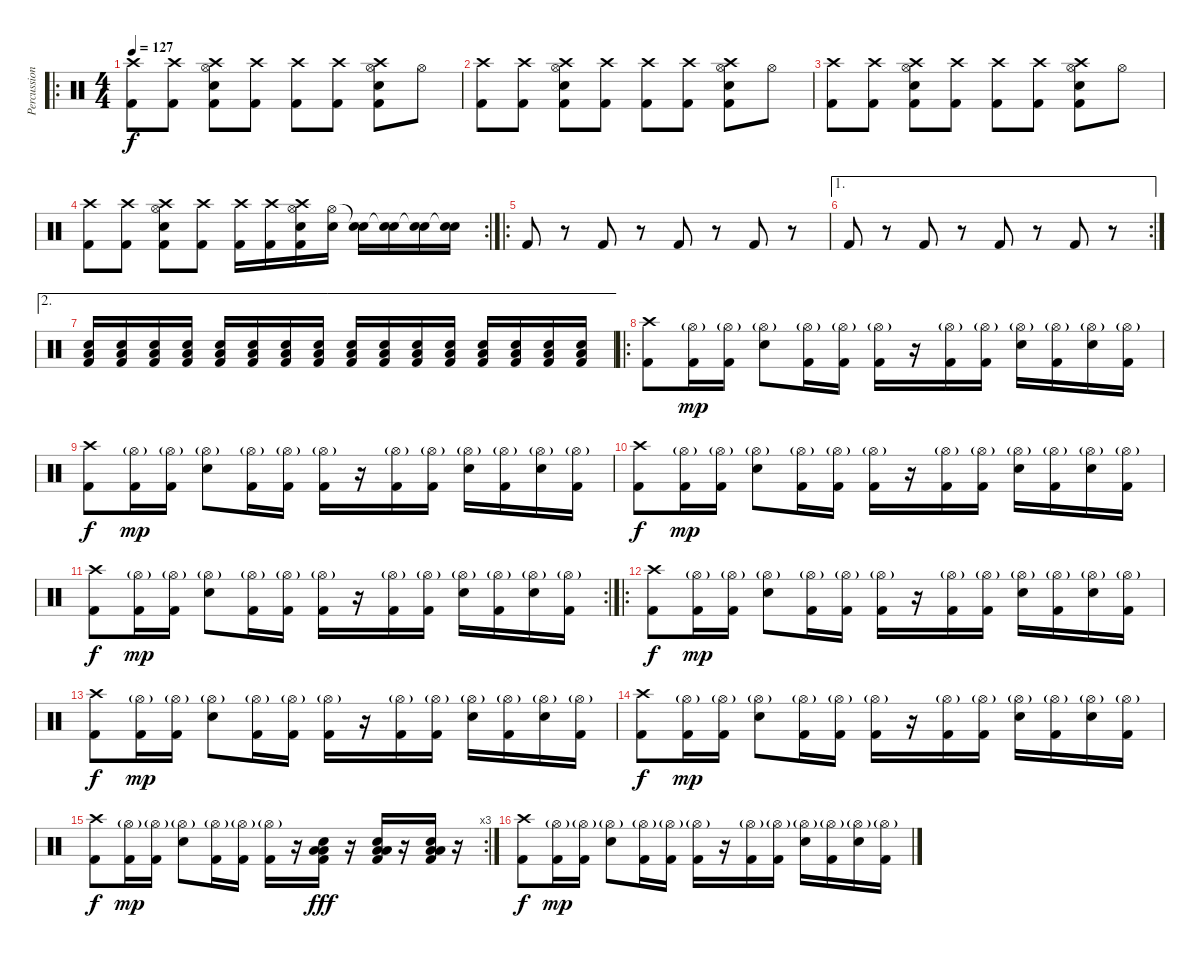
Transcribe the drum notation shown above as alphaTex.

\track ("Percussions" "Percussion") {instrument percussion}
\staff {score}
\articulation defaults
\ro
\ts (4 4)
\tempo 127
\clef neutral
\ks c
("Crash high (hit)" "Kick (hit) 2").8{dy f} ("Crash high (hit)" "Kick (hit) 2").8 ("Crash high (hit)" "Hi-Hat (open)" "Kick (hit) 2" "Electric Snare (hit)").8 ("Crash high (hit)" "Kick (hit) 2").8 ("Crash high (hit)" "Kick (hit) 2").8 ("Crash high (hit)" "Kick (hit) 2").8 ("Crash high (hit)" "Hi-Hat (open)" "Kick (hit) 2" "Electric Snare (hit)").8 "Hi-Hat (open)".8 |
("Crash high (hit)" "Kick (hit) 2").8 ("Crash high (hit)" "Kick (hit) 2").8 ("Crash high (hit)" "Hi-Hat (open)" "Kick (hit) 2" "Electric Snare (hit)").8 ("Crash high (hit)" "Kick (hit) 2").8 ("Crash high (hit)" "Kick (hit) 2").8 ("Crash high (hit)" "Kick (hit) 2").8 ("Crash high (hit)" "Hi-Hat (open)" "Kick (hit) 2" "Electric Snare (hit)").8 "Hi-Hat (open)".8 |
("Crash high (hit)" "Kick (hit) 2").8 ("Crash high (hit)" "Kick (hit) 2").8 ("Crash high (hit)" "Hi-Hat (open)" "Kick (hit) 2" "Electric Snare (hit)").8 ("Crash high (hit)" "Kick (hit) 2").8 ("Crash high (hit)" "Kick (hit) 2").8 ("Crash high (hit)" "Kick (hit) 2").8 ("Crash high (hit)" "Hi-Hat (open)" "Kick (hit) 2" "Electric Snare (hit)").8 "Hi-Hat (open)".8 |
\rc 2
("Crash high (hit)" "Kick (hit) 2").8 ("Crash high (hit)" "Kick (hit) 2").8 ("Crash high (hit)" "Hi-Hat (open)" "Kick (hit) 2" "Electric Snare (hit)").8 ("Crash high (hit)" "Kick (hit) 2").8 ("Crash high (hit)" "Kick (hit) 2").16 ("Crash high (hit)" "Kick (hit) 2").16 ("Crash high (hit)" "Hi-Hat (open)" "Kick (hit) 2" "Electric Snare (hit)").16 ("Hi-Hat (open)" "Electric Snare (hit)").16 ("Snare (hit)"{t} "Electric Snare (hit)").16 ("Snare (hit)"{t} "Electric Snare (hit)").16 ("Snare (hit)"{t} "Electric Snare (hit)").16 ("Snare (hit)"{t} "Electric Snare (hit)").16 |
\ro "Kick (hit) 2".8
r.8 "Kick (hit) 2".8 r.8 "Kick (hit) 2".8 r.8 "Kick (hit) 2".8 r.8 |
\ae 1
\rc 2 "Kick (hit) 2".8
r.8 "Kick (hit) 2".8 r.8 "Kick (hit) 2".8 r.8 "Kick (hit) 2".8 r.8 |
\ae 2
("Kick (hit) 2" "Low Floor Tom (hit)" "Electric Snare (hit)").16 ("Kick (hit) 2" "Low Floor Tom (hit)" "Electric Snare (hit)").16 ("Kick (hit) 2" "Low Floor Tom (hit)" "Electric Snare (hit)").16 ("Kick (hit) 2" "Low Floor Tom (hit)" "Electric Snare (hit)").16 ("Kick (hit) 2" "Low Floor Tom (hit)" "Electric Snare (hit)").16 ("Kick (hit) 2" "Low Floor Tom (hit)" "Electric Snare (hit)").16 ("Kick (hit) 2" "Low Floor Tom (hit)" "Electric Snare (hit)").16 ("Kick (hit) 2" "Low Floor Tom (hit)" "Electric Snare (hit)").16 ("Kick (hit) 2" "Low Floor Tom (hit)" "Electric Snare (hit)").16 ("Kick (hit) 2" "Low Floor Tom (hit)" "Electric Snare (hit)").16 ("Kick (hit) 2" "Low Floor Tom (hit)" "Electric Snare (hit)").16 ("Kick (hit) 2" "Low Floor Tom (hit)" "Electric Snare (hit)").16 ("Kick (hit) 2" "Low Floor Tom (hit)" "Electric Snare (hit)").16 ("Kick (hit) 2" "Low Floor Tom (hit)" "Electric Snare (hit)").16 ("Kick (hit) 2" "Low Floor Tom (hit)" "Electric Snare (hit)").16 ("Kick (hit) 2" "Low Floor Tom (hit)" "Electric Snare (hit)").16 |
\ro
("Crash high (hit)" "Kick (hit) 2").8 ("Hi-Hat (open)"{g} "Kick (hit) 2").16{dy mp} ("Hi-Hat (open)"{g} "Kick (hit) 2").16 ("Hi-Hat (open)"{g} "Electric Snare (hit)").8 ("Hi-Hat (open)"{g} "Kick (hit) 2").16 ("Hi-Hat (open)"{g} "Kick (hit) 2").16 ("Hi-Hat (open)"{g} "Kick (hit) 2").16 r.16 ("Hi-Hat (open)"{g} "Kick (hit) 2").16 ("Hi-Hat (open)"{g} "Kick (hit) 2").16 ("Hi-Hat (open)"{g} "Electric Snare (hit)").16 ("Hi-Hat (open)"{g} "Kick (hit) 2").16 ("Hi-Hat (open)"{g} "Electric Snare (hit)").16 ("Hi-Hat (open)"{g} "Kick (hit) 2").16 |
("Crash high (hit)" "Kick (hit) 2").8{dy f} ("Hi-Hat (open)"{g} "Kick (hit) 2").16{dy mp} ("Hi-Hat (open)"{g} "Kick (hit) 2").16 ("Hi-Hat (open)"{g} "Electric Snare (hit)").8 ("Hi-Hat (open)"{g} "Kick (hit) 2").16 ("Hi-Hat (open)"{g} "Kick (hit) 2").16 ("Hi-Hat (open)"{g} "Kick (hit) 2").16 r.16 ("Hi-Hat (open)"{g} "Kick (hit) 2").16 ("Hi-Hat (open)"{g} "Kick (hit) 2").16 ("Hi-Hat (open)"{g} "Electric Snare (hit)").16 ("Hi-Hat (open)"{g} "Kick (hit) 2").16 ("Hi-Hat (open)"{g} "Electric Snare (hit)").16 ("Hi-Hat (open)"{g} "Kick (hit) 2").16 |
("Crash high (hit)" "Kick (hit) 2").8{dy f} ("Hi-Hat (open)"{g} "Kick (hit) 2").16{dy mp} ("Hi-Hat (open)"{g} "Kick (hit) 2").16 ("Hi-Hat (open)"{g} "Electric Snare (hit)").8 ("Hi-Hat (open)"{g} "Kick (hit) 2").16 ("Hi-Hat (open)"{g} "Kick (hit) 2").16 ("Hi-Hat (open)"{g} "Kick (hit) 2").16 r.16 ("Hi-Hat (open)"{g} "Kick (hit) 2").16 ("Hi-Hat (open)"{g} "Kick (hit) 2").16 ("Hi-Hat (open)"{g} "Electric Snare (hit)").16 ("Hi-Hat (open)"{g} "Kick (hit) 2").16 ("Hi-Hat (open)"{g} "Electric Snare (hit)").16 ("Hi-Hat (open)"{g} "Kick (hit) 2").16 |
\rc 2
("Crash high (hit)" "Kick (hit) 2").8{dy f} ("Hi-Hat (open)"{g} "Kick (hit) 2").16{dy mp} ("Hi-Hat (open)"{g} "Kick (hit) 2").16 ("Hi-Hat (open)"{g} "Electric Snare (hit)").8 ("Hi-Hat (open)"{g} "Kick (hit) 2").16 ("Hi-Hat (open)"{g} "Kick (hit) 2").16 ("Hi-Hat (open)"{g} "Kick (hit) 2").16 r.16 ("Hi-Hat (open)"{g} "Kick (hit) 2").16 ("Hi-Hat (open)"{g} "Kick (hit) 2").16 ("Hi-Hat (open)"{g} "Electric Snare (hit)").16 ("Hi-Hat (open)"{g} "Kick (hit) 2").16 ("Hi-Hat (open)"{g} "Electric Snare (hit)").16 ("Hi-Hat (open)"{g} "Kick (hit) 2").16 |
\ro
("Crash high (hit)" "Kick (hit) 2").8{dy f} ("Hi-Hat (open)"{g} "Kick (hit) 2").16{dy mp} ("Hi-Hat (open)"{g} "Kick (hit) 2").16 ("Hi-Hat (open)"{g} "Electric Snare (hit)").8 ("Hi-Hat (open)"{g} "Kick (hit) 2").16 ("Hi-Hat (open)"{g} "Kick (hit) 2").16 ("Hi-Hat (open)"{g} "Kick (hit) 2").16 r.16 ("Hi-Hat (open)"{g} "Kick (hit) 2").16 ("Hi-Hat (open)"{g} "Kick (hit) 2").16 ("Hi-Hat (open)"{g} "Electric Snare (hit)").16 ("Hi-Hat (open)"{g} "Kick (hit) 2").16 ("Hi-Hat (open)"{g} "Electric Snare (hit)").16 ("Hi-Hat (open)"{g} "Kick (hit) 2").16 |
("Crash high (hit)" "Kick (hit) 2").8{dy f} ("Hi-Hat (open)"{g} "Kick (hit) 2").16{dy mp} ("Hi-Hat (open)"{g} "Kick (hit) 2").16 ("Hi-Hat (open)"{g} "Electric Snare (hit)").8 ("Hi-Hat (open)"{g} "Kick (hit) 2").16 ("Hi-Hat (open)"{g} "Kick (hit) 2").16 ("Hi-Hat (open)"{g} "Kick (hit) 2").16 r.16 ("Hi-Hat (open)"{g} "Kick (hit) 2").16 ("Hi-Hat (open)"{g} "Kick (hit) 2").16 ("Hi-Hat (open)"{g} "Electric Snare (hit)").16 ("Hi-Hat (open)"{g} "Kick (hit) 2").16 ("Hi-Hat (open)"{g} "Electric Snare (hit)").16 ("Hi-Hat (open)"{g} "Kick (hit) 2").16 |
("Crash high (hit)" "Kick (hit) 2").8{dy f} ("Hi-Hat (open)"{g} "Kick (hit) 2").16{dy mp} ("Hi-Hat (open)"{g} "Kick (hit) 2").16 ("Hi-Hat (open)"{g} "Electric Snare (hit)").8 ("Hi-Hat (open)"{g} "Kick (hit) 2").16 ("Hi-Hat (open)"{g} "Kick (hit) 2").16 ("Hi-Hat (open)"{g} "Kick (hit) 2").16 r.16 ("Hi-Hat (open)"{g} "Kick (hit) 2").16 ("Hi-Hat (open)"{g} "Kick (hit) 2").16 ("Hi-Hat (open)"{g} "Electric Snare (hit)").16 ("Hi-Hat (open)"{g} "Kick (hit) 2").16 ("Hi-Hat (open)"{g} "Electric Snare (hit)").16 ("Hi-Hat (open)"{g} "Kick (hit) 2").16 |
\rc 3
("Crash high (hit)" "Kick (hit) 2").8{dy f} ("Hi-Hat (open)"{g} "Kick (hit) 2").16{dy mp} ("Hi-Hat (open)"{g} "Kick (hit) 2").16 ("Hi-Hat (open)"{g} "Electric Snare (hit)").8 ("Hi-Hat (open)"{g} "Kick (hit) 2").16 ("Hi-Hat (open)"{g} "Kick (hit) 2").16 ("Hi-Hat (open)"{g} "Kick (hit) 2").16 r.16 ("Low Floor Tom (hit)" "Low Floor Tom (hit)" "Kick (hit) 2" "Electric Snare (hit)").16{dy fff} r.16 ("Low Floor Tom (hit)" "Low Floor Tom (hit)" "Kick (hit) 2" "Electric Snare (hit)").16 r.16 ("Low Floor Tom (hit)" "Low Floor Tom (hit)" "Kick (hit) 2" "Electric Snare (hit)").16 r.16 |
("Crash high (hit)" "Kick (hit) 2").8{dy f} ("Hi-Hat (open)"{g} "Kick (hit) 2").16{dy mp} ("Hi-Hat (open)"{g} "Kick (hit) 2").16 ("Hi-Hat (open)"{g} "Electric Snare (hit)").8 ("Hi-Hat (open)"{g} "Kick (hit) 2").16 ("Hi-Hat (open)"{g} "Kick (hit) 2").16 ("Hi-Hat (open)"{g} "Kick (hit) 2").16 r.16 ("Hi-Hat (open)"{g} "Kick (hit) 2").16 ("Hi-Hat (open)"{g} "Kick (hit) 2").16 ("Hi-Hat (open)"{g} "Electric Snare (hit)").16 ("Hi-Hat (open)"{g} "Kick (hit) 2").16 ("Hi-Hat (open)"{g} "Electric Snare (hit)").16 ("Hi-Hat (open)"{g} "Kick (hit) 2").16
